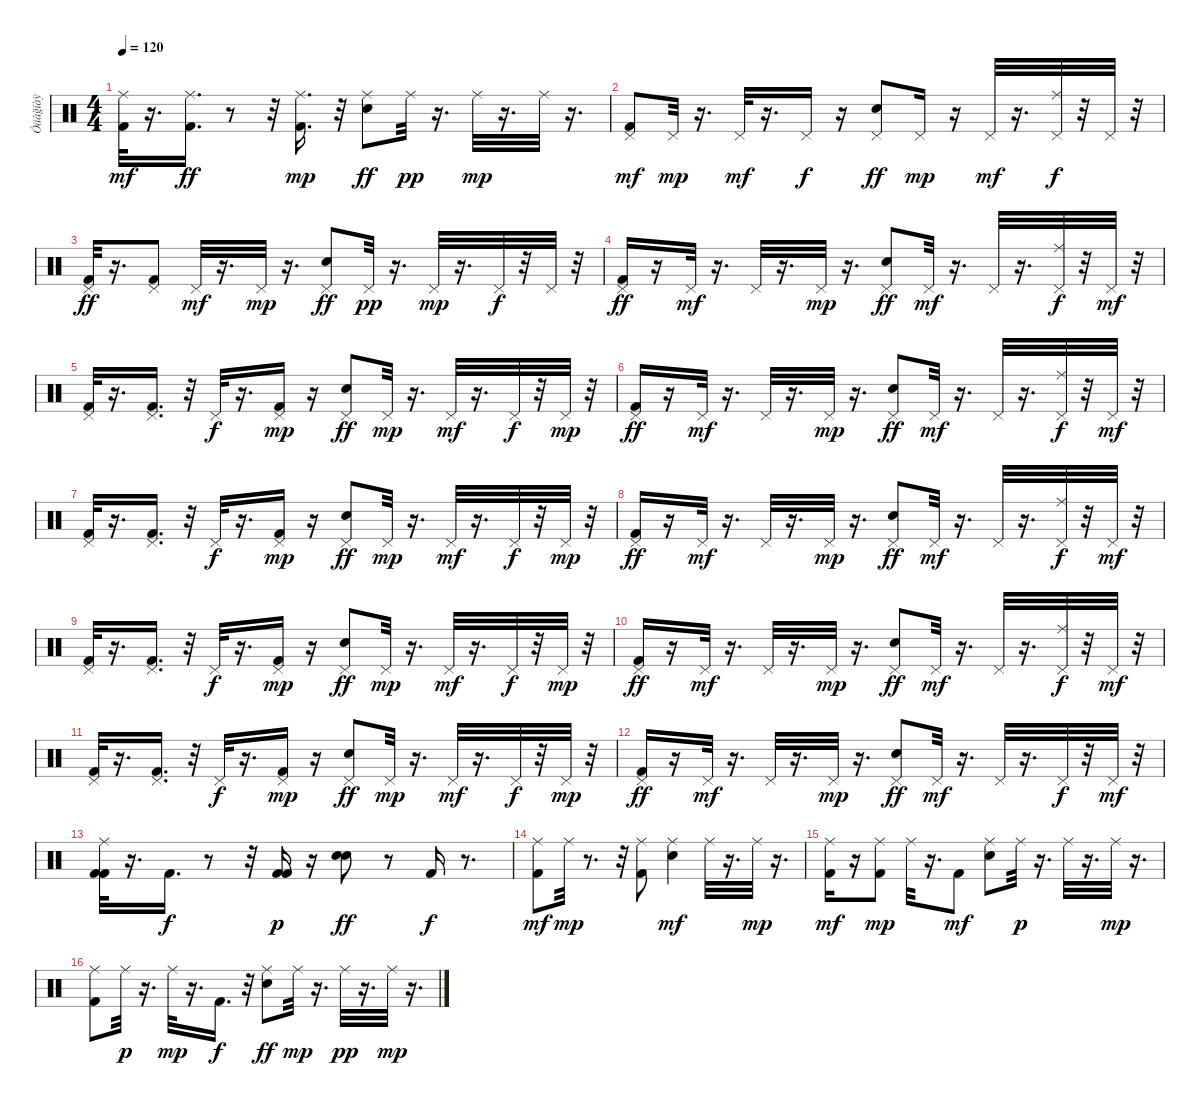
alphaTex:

\track ("Óäàğíàÿ" "Óäàğíàÿ") {instrument percussion}
\staff {score}
\articulation defaults
\ts (4 4)
\tempo 120
\clef neutral
\ks c
("Ride (middle)" "Kick (hit) 2").32{dy mf} r.16{d} ("Ride (middle)" "Kick (hit) 2").16{d dy ff} r.8 r.32 ("Ride (middle)" "Kick (hit) 2").16{d dy mp} r.32 ("Ride (middle)" "Snare (hit) 2").8{dy ff} "Ride (middle)".32{dy pp} r.16{d} "Ride (middle)".32{dy mp} r.16{d} "Ride (middle)".32 r.16{d} |
("Kick (hit) 2" "Pedal Hi-Hat (hit)").8{dy mf} "Pedal Hi-Hat (hit)".32{dy mp} r.16{d} "Pedal Hi-Hat (hit)".32{dy mf} r.16{d} "Pedal Hi-Hat (hit)".16{dy f} r.16 ("Pedal Hi-Hat (hit)" "Snare (hit) 2").8{dy ff} "Pedal Hi-Hat (hit)".16{dy mp} r.16 "Pedal Hi-Hat (hit)".32{dy mf} r.16{d} ("Ride (middle)" "Pedal Hi-Hat (hit)").32{dy f} r.32 "Pedal Hi-Hat (hit)".32 r.32 |
("Kick (hit) 2" "Pedal Hi-Hat (hit)").32{dy ff} r.16{d} ("Kick (hit) 2" "Pedal Hi-Hat (hit)").8 "Pedal Hi-Hat (hit)".32{dy mf} r.16{d} "Pedal Hi-Hat (hit)".32{dy mp} r.16{d} ("Pedal Hi-Hat (hit)" "Snare (hit) 2").8{dy ff} "Pedal Hi-Hat (hit)".32{dy pp} r.16{d} "Pedal Hi-Hat (hit)".32{dy mp} r.16{d} "Pedal Hi-Hat (hit)".32{dy f} r.32 "Pedal Hi-Hat (hit)".32 r.32 |
("Kick (hit) 2" "Pedal Hi-Hat (hit)").16{dy ff} r.16 "Pedal Hi-Hat (hit)".32{dy mf} r.16{d} "Pedal Hi-Hat (hit)".32 r.16{d} "Pedal Hi-Hat (hit)".32{dy mp} r.16{d} ("Pedal Hi-Hat (hit)" "Snare (hit) 2").8{dy ff} "Pedal Hi-Hat (hit)".32{dy mf} r.16{d} "Pedal Hi-Hat (hit)".32 r.16{d} ("Ride (middle)" "Pedal Hi-Hat (hit)").32{dy f} r.32 "Pedal Hi-Hat (hit)".32{dy mf} r.32 |
("Kick (hit) 2" "Pedal Hi-Hat (hit)").32 r.16{d} ("Kick (hit) 2" "Pedal Hi-Hat (hit)").16{d} r.32 "Pedal Hi-Hat (hit)".32{dy f} r.16{d} ("Kick (hit) 2" "Pedal Hi-Hat (hit)").16{dy mp} r.16 ("Pedal Hi-Hat (hit)" "Snare (hit) 2").8{dy ff} "Pedal Hi-Hat (hit)".32{dy mp} r.16{d} "Pedal Hi-Hat (hit)".32{dy mf} r.16{d} "Pedal Hi-Hat (hit)".32{dy f} r.32 "Pedal Hi-Hat (hit)".32{dy mp} r.32 |
("Kick (hit) 2" "Pedal Hi-Hat (hit)").16{dy ff} r.16 "Pedal Hi-Hat (hit)".32{dy mf} r.16{d} "Pedal Hi-Hat (hit)".32 r.16{d} "Pedal Hi-Hat (hit)".32{dy mp} r.16{d} ("Pedal Hi-Hat (hit)" "Snare (hit) 2").8{dy ff} "Pedal Hi-Hat (hit)".32{dy mf} r.16{d} "Pedal Hi-Hat (hit)".32 r.16{d} ("Ride (middle)" "Pedal Hi-Hat (hit)").32{dy f} r.32 "Pedal Hi-Hat (hit)".32{dy mf} r.32 |
("Kick (hit) 2" "Pedal Hi-Hat (hit)").32 r.16{d} ("Kick (hit) 2" "Pedal Hi-Hat (hit)").16{d} r.32 "Pedal Hi-Hat (hit)".32{dy f} r.16{d} ("Kick (hit) 2" "Pedal Hi-Hat (hit)").16{dy mp} r.16 ("Pedal Hi-Hat (hit)" "Snare (hit) 2").8{dy ff} "Pedal Hi-Hat (hit)".32{dy mp} r.16{d} "Pedal Hi-Hat (hit)".32{dy mf} r.16{d} "Pedal Hi-Hat (hit)".32{dy f} r.32 "Pedal Hi-Hat (hit)".32{dy mp} r.32 |
("Kick (hit) 2" "Pedal Hi-Hat (hit)").16{dy ff} r.16 "Pedal Hi-Hat (hit)".32{dy mf} r.16{d} "Pedal Hi-Hat (hit)".32 r.16{d} "Pedal Hi-Hat (hit)".32{dy mp} r.16{d} ("Pedal Hi-Hat (hit)" "Snare (hit) 2").8{dy ff} "Pedal Hi-Hat (hit)".32{dy mf} r.16{d} "Pedal Hi-Hat (hit)".32 r.16{d} ("Ride (middle)" "Pedal Hi-Hat (hit)").32{dy f} r.32 "Pedal Hi-Hat (hit)".32{dy mf} r.32 |
("Kick (hit) 2" "Pedal Hi-Hat (hit)").32 r.16{d} ("Kick (hit) 2" "Pedal Hi-Hat (hit)").16{d} r.32 "Pedal Hi-Hat (hit)".32{dy f} r.16{d} ("Kick (hit) 2" "Pedal Hi-Hat (hit)").16{dy mp} r.16 ("Pedal Hi-Hat (hit)" "Snare (hit) 2").8{dy ff} "Pedal Hi-Hat (hit)".32{dy mp} r.16{d} "Pedal Hi-Hat (hit)".32{dy mf} r.16{d} "Pedal Hi-Hat (hit)".32{dy f} r.32 "Pedal Hi-Hat (hit)".32{dy mp} r.32 |
("Kick (hit) 2" "Pedal Hi-Hat (hit)").16{dy ff} r.16 "Pedal Hi-Hat (hit)".32{dy mf} r.16{d} "Pedal Hi-Hat (hit)".32 r.16{d} "Pedal Hi-Hat (hit)".32{dy mp} r.16{d} ("Pedal Hi-Hat (hit)" "Snare (hit) 2").8{dy ff} "Pedal Hi-Hat (hit)".32{dy mf} r.16{d} "Pedal Hi-Hat (hit)".32 r.16{d} ("Ride (middle)" "Pedal Hi-Hat (hit)").32{dy f} r.32 "Pedal Hi-Hat (hit)".32{dy mf} r.32 |
("Kick (hit) 2" "Pedal Hi-Hat (hit)").32 r.16{d} ("Kick (hit) 2" "Pedal Hi-Hat (hit)").16{d} r.32 "Pedal Hi-Hat (hit)".32{dy f} r.16{d} ("Kick (hit) 2" "Pedal Hi-Hat (hit)").16{dy mp} r.16 ("Pedal Hi-Hat (hit)" "Snare (hit) 2").8{dy ff} "Pedal Hi-Hat (hit)".32{dy mp} r.16{d} "Pedal Hi-Hat (hit)".32{dy mf} r.16{d} "Pedal Hi-Hat (hit)".32{dy f} r.32 "Pedal Hi-Hat (hit)".32{dy mp} r.32 |
("Kick (hit) 2" "Pedal Hi-Hat (hit)").16{dy ff} r.16 "Pedal Hi-Hat (hit)".32{dy mf} r.16{d} "Pedal Hi-Hat (hit)".32 r.16{d} "Pedal Hi-Hat (hit)".32{dy mp} r.16{d} ("Pedal Hi-Hat (hit)" "Snare (hit) 2").8{dy ff} "Pedal Hi-Hat (hit)".32{dy mf} r.16{d} "Pedal Hi-Hat (hit)".32 r.16{d} "Pedal Hi-Hat (hit)".32{dy f} r.32 "Pedal Hi-Hat (hit)".32{dy mf} r.32 |
("Ride (middle)" "Kick (hit) 2" "Kick (hit) 2").32 r.16{d} "Kick (hit) 2".16{d dy f} r.8 r.32 ("Kick (hit) 2" "Kick (hit) 2").16{dy p} r.16 ("Snare (hit) 2" "Snare (hit) 2").8{dy ff} r.8 "Kick (hit) 2".16{dy f} r.8{d} |
("Ride (middle)" "Kick (hit) 2").8{dy mf} "Ride (middle)".32{dy mp} r.8{d} r.32 ("Kick (hit) 2" "Ride (middle)").8 ("Snare (hit) 2" "Ride (middle)").4{dy mf} "Ride (middle)".32 r.16{d} "Ride (middle)".32{dy mp} r.16{d} |
("Ride (middle)" "Kick (hit) 2").16{dy mf} r.16 ("Kick (hit) 2" "Ride (middle)").8{dy mp} "Ride (middle)".32 r.16{d} "Kick (hit) 2".8{dy mf} ("Ride (middle)" "Snare (hit) 2").8 "Ride (middle)".32{dy p} r.16{d} "Ride (middle)".32 r.16{d} "Ride (middle)".32{dy mp} r.16{d} |
("Kick (hit) 2" "Ride (middle)").8 "Ride (middle)".32{dy p} r.16{d} "Ride (middle)".32{dy mp} r.16{d} "Kick (hit) 2".16{d dy f} r.32 ("Ride (middle)" "Snare (hit) 2").8{dy ff} "Ride (middle)".32{dy mp} r.16{d} "Ride (middle)".32{dy pp} r.16{d} "Ride (middle)".32{dy mp} r.16{d}
